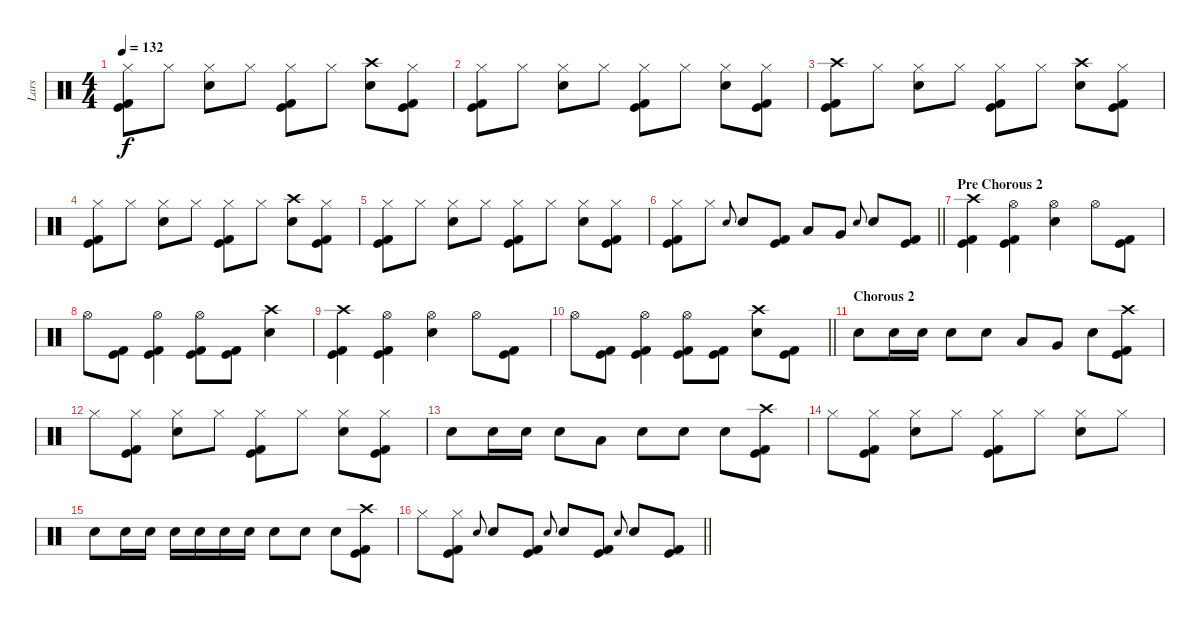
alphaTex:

\track ("Lars" "Lars") {instrument percussion}
\staff {score}
\articulation defaults
\ts (4 4)
\tempo 132
\clef neutral
\ks c
("Hi-Hat (closed)" "Kick (hit)" "Kick (hit) 2").8{dy f} "Hi-Hat (closed)".8 ("Hi-Hat (closed)" "Electric Snare (hit)").8 "Hi-Hat (closed)".8 ("Hi-Hat (closed)" "Kick (hit)" "Kick (hit) 2").8 "Hi-Hat (closed)".8 ("Crash high (hit)" "Electric Snare (hit)").8 ("Hi-Hat (closed)" "Kick (hit)" "Kick (hit) 2").8 |
("Hi-Hat (closed)" "Kick (hit)" "Kick (hit) 2").8 "Hi-Hat (closed)".8 ("Hi-Hat (closed)" "Electric Snare (hit)").8 "Hi-Hat (closed)".8 ("Hi-Hat (closed)" "Kick (hit)" "Kick (hit) 2").8 "Hi-Hat (closed)".8 ("Hi-Hat (closed)" "Electric Snare (hit)").8 ("Hi-Hat (closed)" "Kick (hit)" "Kick (hit) 2").8 |
("Crash high (hit)" "Kick (hit)" "Kick (hit) 2").8 "Hi-Hat (closed)".8 ("Hi-Hat (closed)" "Electric Snare (hit)").8 "Hi-Hat (closed)".8 ("Hi-Hat (closed)" "Kick (hit)" "Kick (hit) 2").8 "Hi-Hat (closed)".8 ("Crash high (hit)" "Electric Snare (hit)").8 ("Hi-Hat (closed)" "Kick (hit)" "Kick (hit) 2").8 |
("Hi-Hat (closed)" "Kick (hit)" "Kick (hit) 2").8 "Hi-Hat (closed)".8 ("Hi-Hat (closed)" "Electric Snare (hit)").8 "Hi-Hat (closed)".8 ("Hi-Hat (closed)" "Kick (hit)" "Kick (hit) 2").8 "Hi-Hat (closed)".8 ("Crash high (hit)" "Electric Snare (hit)").8 ("Hi-Hat (closed)" "Kick (hit)" "Kick (hit) 2").8 |
("Hi-Hat (closed)" "Kick (hit)" "Kick (hit) 2").8 "Hi-Hat (closed)".8 ("Hi-Hat (closed)" "Electric Snare (hit)").8 "Hi-Hat (closed)".8 ("Hi-Hat (closed)" "Kick (hit)" "Kick (hit) 2").8 "Hi-Hat (closed)".8 ("Hi-Hat (closed)" "Electric Snare (hit)").8 ("Hi-Hat (closed)" "Kick (hit)" "Kick (hit) 2").8 |
\barLineRight lightlight
("Hi-Hat (closed)" "Kick (hit)" "Kick (hit) 2").8 "Hi-Hat (closed)".8 "Electric Snare (hit)".8{gr onbeat} "Electric Snare (hit)".8 ("Kick (hit)" "Kick (hit) 2").8 "Low Tom (hit)".8 "Very Low Tom (hit)".8 "Electric Snare (hit)".8{gr onbeat} "Electric Snare (hit)".8 ("Kick (hit)" "Kick (hit) 2").8 |
\section ("" "Pre Chorous 2")
("Crash high (hit)" "Kick (hit)" "Kick (hit) 2").4 ("Hi-Hat (open)" "Kick (hit)" "Kick (hit) 2").4 ("Hi-Hat (open)" "Electric Snare (hit)").4 "Hi-Hat (open)".8 ("Kick (hit)" "Kick (hit) 2").8 |
"Hi-Hat (open)".8 ("Kick (hit)" "Kick (hit) 2").8 ("Hi-Hat (open)" "Kick (hit)" "Kick (hit) 2").4 ("Hi-Hat (open)" "Kick (hit)" "Kick (hit) 2").8 ("Kick (hit)" "Kick (hit) 2").8 ("Crash high (hit)" "Electric Snare (hit)").4 |
("Crash high (hit)" "Kick (hit)" "Kick (hit) 2").4 ("Hi-Hat (open)" "Kick (hit)" "Kick (hit) 2").4 ("Hi-Hat (open)" "Electric Snare (hit)").4 "Hi-Hat (open)".8 ("Kick (hit)" "Kick (hit) 2").8 |
\barLineRight lightlight "Hi-Hat (open)".8
("Kick (hit)" "Kick (hit) 2").8 ("Hi-Hat (open)" "Kick (hit)" "Kick (hit) 2").4 ("Hi-Hat (open)" "Kick (hit)" "Kick (hit) 2").8 ("Kick (hit)" "Kick (hit) 2").8 ("Crash high (hit)" "Electric Snare (hit)").8 ("Kick (hit)" "Kick (hit) 2").8 |
\section ("" "Chorous 2")
"Electric Snare (hit)".8 "Electric Snare (hit)".16 "Electric Snare (hit)".16 "Electric Snare (hit)".8 "Electric Snare (hit)".8 "Low Tom (hit)".8 "Very Low Tom (hit)".8 "Electric Snare (hit)".8 ("Crash high (hit)" "Kick (hit)" "Kick (hit) 2").8 |
"Hi-Hat (closed)".8 ("Hi-Hat (closed)" "Kick (hit)" "Kick (hit) 2").8 ("Hi-Hat (closed)" "Electric Snare (hit)").8 "Hi-Hat (closed)".8 ("Hi-Hat (closed)" "Kick (hit)" "Kick (hit) 2").8 "Hi-Hat (closed)".8 ("Hi-Hat (closed)" "Electric Snare (hit)").8 ("Hi-Hat (closed)" "Kick (hit)" "Kick (hit) 2").8 |
"Electric Snare (hit)".8 "Electric Snare (hit)".16 "Electric Snare (hit)".16 "Electric Snare (hit)".8 "Low Tom (hit)".8 "Electric Snare (hit)".8 "Electric Snare (hit)".8 "Electric Snare (hit)".8 ("Crash high (hit)" "Kick (hit)" "Kick (hit) 2").8 |
"Hi-Hat (closed)".8 ("Hi-Hat (closed)" "Kick (hit)" "Kick (hit) 2").8 ("Hi-Hat (closed)" "Electric Snare (hit)").8 "Hi-Hat (closed)".8 ("Hi-Hat (closed)" "Kick (hit)" "Kick (hit) 2").8 "Hi-Hat (closed)".8 ("Hi-Hat (closed)" "Electric Snare (hit)").8 "Hi-Hat (closed)".8 |
"Electric Snare (hit)".8 "Electric Snare (hit)".16 "Electric Snare (hit)".16 "Electric Snare (hit)".16 "Electric Snare (hit)".16 "Electric Snare (hit)".16 "Electric Snare (hit)".16 "Electric Snare (hit)".8 "Electric Snare (hit)".8 "Electric Snare (hit)".8 ("Crash high (hit)" "Kick (hit)" "Kick (hit) 2").8 |
\barLineRight lightlight "Hi-Hat (closed)".8
("Hi-Hat (closed)" "Kick (hit)" "Kick (hit) 2").8 "Electric Snare (hit)".8{gr onbeat} "Electric Snare (hit)".8 ("Kick (hit)" "Kick (hit) 2").8 "Electric Snare (hit)".8{gr onbeat} "Electric Snare (hit)".8 ("Kick (hit)" "Kick (hit) 2").8 "Electric Snare (hit)".8{gr onbeat} "Electric Snare (hit)".8 ("Kick (hit)" "Kick (hit) 2").8
